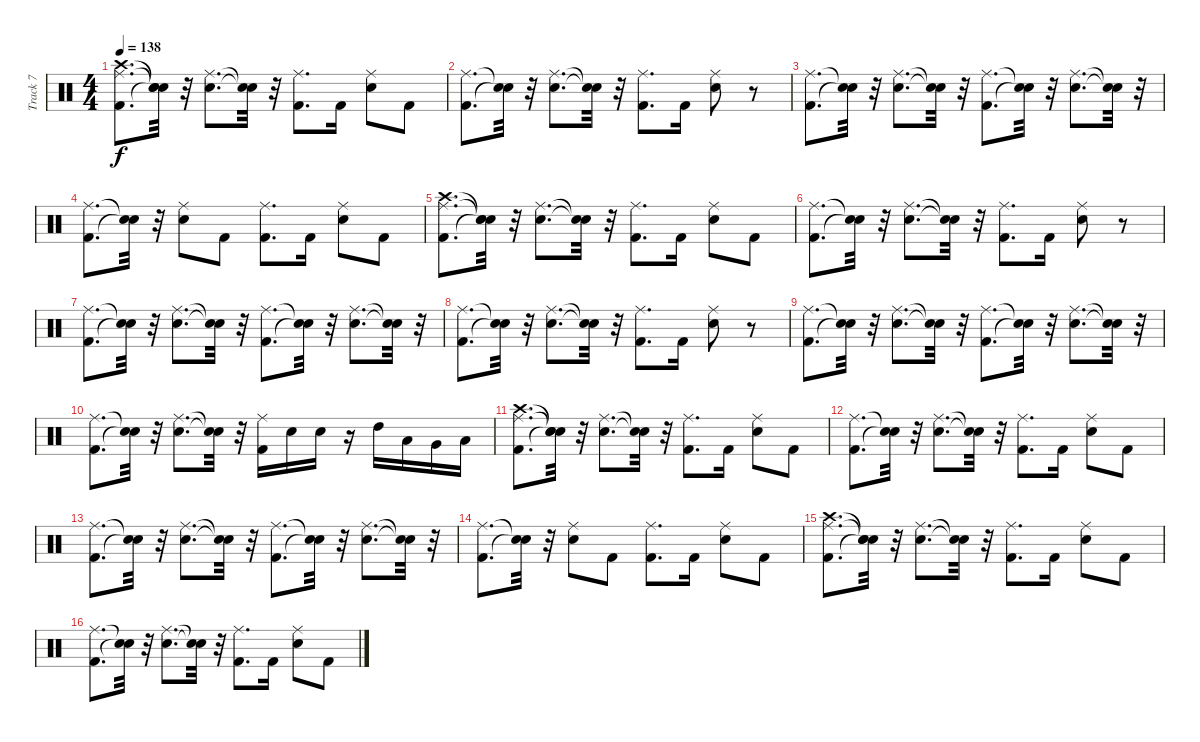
\track ("Track 7" "Track 7") {instrument percussion}
\staff {score}
\articulation defaults
\ts (4 4)
\tempo 138
\clef neutral
\ks c
("Kick (hit) 2" "Crash high (hit)" "Ride (middle)").8{d dy f} ("Snare (hit)"{t} "Snare (hit)"{t} "Snare (hit)"{t}).32 r.32 ("Snare (hit) 2" "Ride (middle)").8{d} ("Snare (hit)"{t} "Snare (hit)"{t}).32 r.32 ("Kick (hit) 2" "Ride (middle)").8{d} "Kick (hit) 2".16 ("Snare (hit) 2" "Ride (middle)").8 "Kick (hit) 2".8 |
("Kick (hit) 2" "Ride (middle)").8{d} ("Snare (hit)"{t} "Snare (hit)"{t}).32 r.32 ("Snare (hit) 2" "Ride (middle)").8{d} ("Snare (hit)"{t} "Snare (hit)"{t}).32 r.32 ("Kick (hit) 2" "Ride (middle)").8{d} "Kick (hit) 2".16 ("Snare (hit) 2" "Ride (middle)").8 r.8 |
("Kick (hit) 2" "Ride (middle)").8{d} ("Snare (hit)"{t} "Snare (hit)"{t}).32 r.32 ("Snare (hit) 2" "Ride (middle)").8{d} ("Snare (hit)"{t} "Snare (hit)"{t}).32 r.32 ("Kick (hit) 2" "Ride (middle)").8{d} ("Snare (hit)"{t} "Snare (hit)"{t}).32 r.32 ("Snare (hit) 2" "Ride (middle)").8{d} ("Snare (hit)"{t} "Snare (hit)"{t}).32 r.32 |
("Kick (hit) 2" "Ride (middle)").8{d} ("Snare (hit)"{t} "Snare (hit)"{t}).32 r.32 ("Snare (hit) 2" "Ride (middle)").8 "Kick (hit) 2".8 ("Kick (hit) 2" "Ride (middle)").8{d} "Kick (hit) 2".16 ("Snare (hit) 2" "Ride (middle)").8 "Kick (hit) 2".8 |
("Kick (hit) 2" "Crash high (hit)" "Ride (middle)").8{d} ("Snare (hit)"{t} "Snare (hit)"{t} "Snare (hit)"{t}).32 r.32 ("Snare (hit) 2" "Ride (middle)").8{d} ("Snare (hit)"{t} "Snare (hit)"{t}).32 r.32 ("Kick (hit) 2" "Ride (middle)").8{d} "Kick (hit) 2".16 ("Snare (hit) 2" "Ride (middle)").8 "Kick (hit) 2".8 |
("Kick (hit) 2" "Ride (middle)").8{d} ("Snare (hit)"{t} "Snare (hit)"{t}).32 r.32 ("Snare (hit) 2" "Ride (middle)").8{d} ("Snare (hit)"{t} "Snare (hit)"{t}).32 r.32 ("Kick (hit) 2" "Ride (middle)").8{d} "Kick (hit) 2".16 ("Snare (hit) 2" "Ride (middle)").8 r.8 |
("Kick (hit) 2" "Ride (middle)").8{d} ("Snare (hit)"{t} "Snare (hit)"{t}).32 r.32 ("Snare (hit) 2" "Ride (middle)").8{d} ("Snare (hit)"{t} "Snare (hit)"{t}).32 r.32 ("Kick (hit) 2" "Ride (middle)").8{d} ("Snare (hit)"{t} "Snare (hit)"{t}).32 r.32 ("Snare (hit) 2" "Ride (middle)").8{d} ("Snare (hit)"{t} "Snare (hit)"{t}).32 r.32 |
("Kick (hit) 2" "Ride (middle)").8{d} ("Snare (hit)"{t} "Snare (hit)"{t}).32 r.32 ("Snare (hit) 2" "Ride (middle)").8{d} ("Snare (hit)"{t} "Snare (hit)"{t}).32 r.32 ("Kick (hit) 2" "Ride (middle)").8{d} "Kick (hit) 2".16 ("Snare (hit) 2" "Ride (middle)").8 r.8 |
("Kick (hit) 2" "Ride (middle)").8{d} ("Snare (hit)"{t} "Snare (hit)"{t}).32 r.32 ("Snare (hit) 2" "Ride (middle)").8{d} ("Snare (hit)"{t} "Snare (hit)"{t}).32 r.32 ("Kick (hit) 2" "Ride (middle)").8{d} ("Snare (hit)"{t} "Snare (hit)"{t}).32 r.32 ("Snare (hit) 2" "Ride (middle)").8{d} ("Snare (hit)"{t} "Snare (hit)"{t}).32 r.32 |
("Kick (hit) 2" "Ride (middle)").8{d} ("Snare (hit)"{t} "Snare (hit)"{t}).32 r.32 ("Snare (hit) 2" "Ride (middle)").8{d} ("Snare (hit)"{t} "Snare (hit)"{t}).32 r.32 ("Kick (hit) 2" "Ride (middle)").16 "Snare (hit) 2".16 "Snare (hit) 2".16 r.16 "High Tom (hit)".16 "Low Tom (hit)".16 "Very Low Tom (hit)".16 "Low Floor Tom (hit)".16 |
("Kick (hit) 2" "Crash high (hit)" "Ride (middle)").8{d} ("Snare (hit)"{t} "Snare (hit)"{t} "Snare (hit)"{t}).32 r.32 ("Snare (hit) 2" "Ride (middle)").8{d} ("Snare (hit)"{t} "Snare (hit)"{t}).32 r.32 ("Kick (hit) 2" "Ride (middle)").8{d} "Kick (hit) 2".16 ("Snare (hit) 2" "Ride (middle)").8 "Kick (hit) 2".8 |
("Kick (hit) 2" "Ride (middle)").8{d} ("Snare (hit)"{t} "Snare (hit)"{t}).32 r.32 ("Snare (hit) 2" "Ride (middle)").8{d} ("Snare (hit)"{t} "Snare (hit)"{t}).32 r.32 ("Kick (hit) 2" "Ride (middle)").8{d} "Kick (hit) 2".16 ("Snare (hit) 2" "Ride (middle)").8 "Kick (hit) 2".8 |
("Kick (hit) 2" "Ride (middle)").8{d} ("Snare (hit)"{t} "Snare (hit)"{t}).32 r.32 ("Snare (hit) 2" "Ride (middle)").8{d} ("Snare (hit)"{t} "Snare (hit)"{t}).32 r.32 ("Kick (hit) 2" "Ride (middle)").8{d} ("Snare (hit)"{t} "Snare (hit)"{t}).32 r.32 ("Snare (hit) 2" "Ride (middle)").8{d} ("Snare (hit)"{t} "Snare (hit)"{t}).32 r.32 |
("Kick (hit) 2" "Ride (middle)").8{d} ("Snare (hit)"{t} "Snare (hit)"{t}).32 r.32 ("Snare (hit) 2" "Ride (middle)").8 "Kick (hit) 2".8 ("Kick (hit) 2" "Ride (middle)").8{d} "Kick (hit) 2".16 ("Snare (hit) 2" "Ride (middle)").8 "Kick (hit) 2".8 |
("Kick (hit) 2" "Crash high (hit)" "Ride (middle)").8{d} ("Snare (hit)"{t} "Snare (hit)"{t} "Snare (hit)"{t}).32 r.32 ("Snare (hit) 2" "Ride (middle)").8{d} ("Snare (hit)"{t} "Snare (hit)"{t}).32 r.32 ("Kick (hit) 2" "Ride (middle)").8{d} "Kick (hit) 2".16 ("Snare (hit) 2" "Ride (middle)").8 "Kick (hit) 2".8 |
("Kick (hit) 2" "Ride (middle)").8{d} ("Snare (hit)"{t} "Snare (hit)"{t}).32 r.32 ("Snare (hit) 2" "Ride (middle)").8{d} ("Snare (hit)"{t} "Snare (hit)"{t}).32 r.32 ("Kick (hit) 2" "Ride (middle)").8{d} "Kick (hit) 2".16 ("Snare (hit) 2" "Ride (middle)").8 "Kick (hit) 2".8
